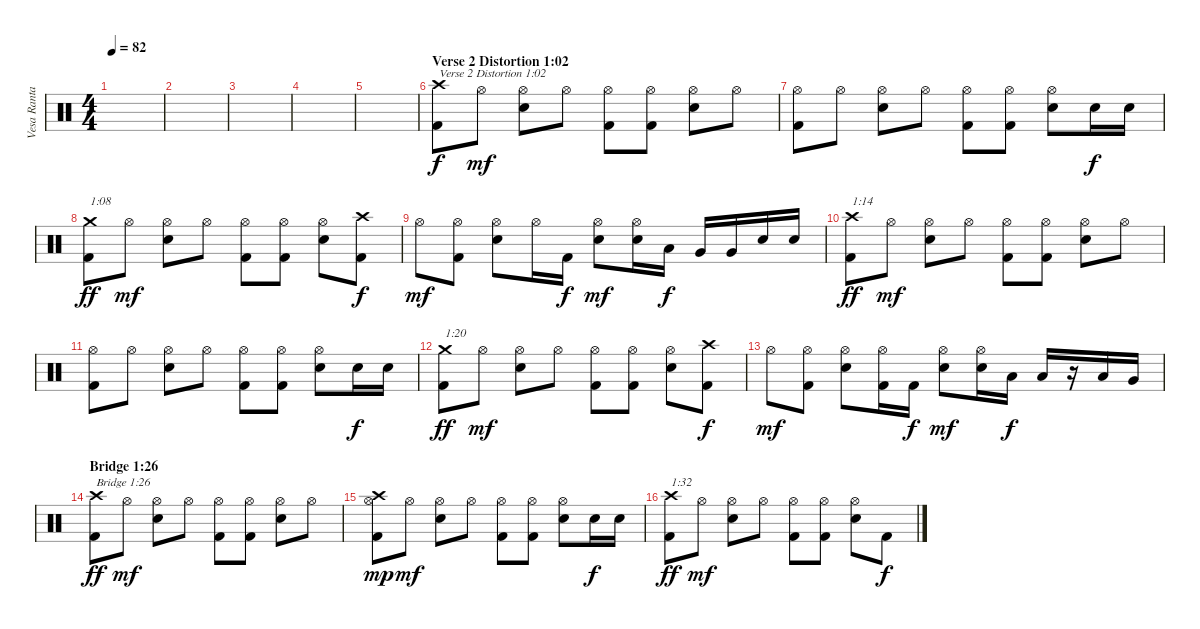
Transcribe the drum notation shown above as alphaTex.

\track ("Vesa Ranta (Drums)" "Vesa Ranta") {instrument percussion}
\staff {score}
\articulation defaults
\ts (4 4)
\tempo 82
\clef neutral
\ks c
|
|
|
|
|
\section ("" "Verse 2 Distortion 1:02")
("Kick (hit) 2" "Crash high (hit)").8{txt "Verse 2 Distortion 1:02"} "Hi-Hat (open)".8{dy mf} ("Electric Snare (hit)" "Hi-Hat (open)").8 "Hi-Hat (open)".8 ("Kick (hit) 2" "Hi-Hat (open)").8 ("Kick (hit) 2" "Hi-Hat (open)").8 ("Electric Snare (hit)" "Hi-Hat (open)").8 "Hi-Hat (open)".8 |
("Kick (hit) 2" "Hi-Hat (open)").8 "Hi-Hat (open)".8 ("Electric Snare (hit)" "Hi-Hat (open)").8 "Hi-Hat (open)".8 ("Kick (hit) 2" "Hi-Hat (open)").8 ("Kick (hit) 2" "Hi-Hat (open)").8 ("Electric Snare (hit)" "Hi-Hat (open)").8 "Electric Snare (hit)".16{dy f} "Electric Snare (hit)".16 |
("Kick (hit) 2" "Crash medium (hit)").8{txt "1:08" dy ff} "Hi-Hat (open)".8{dy mf} ("Electric Snare (hit)" "Hi-Hat (open)").8 "Hi-Hat (open)".8 ("Kick (hit) 2" "Hi-Hat (open)").8 ("Kick (hit) 2" "Hi-Hat (open)").8 ("Electric Snare (hit)" "Hi-Hat (open)").8 ("Kick (hit) 2" "Crash high (hit)").8{dy f} |
"Hi-Hat (open)".8{dy mf} ("Kick (hit) 2" "Hi-Hat (open)").8 ("Electric Snare (hit)" "Hi-Hat (open)").8 "Hi-Hat (open)".16 "Kick (hit) 2".16{dy f} ("Electric Snare (hit)" "Hi-Hat (open)").8{dy mf} ("Electric Snare (hit)" "Hi-Hat (open)").16 "Low Tom (hit)".16{dy f} "Very Low Tom (hit)".16 "Very Low Tom (hit)".16 "Electric Snare (hit)".16 "Electric Snare (hit)".16 |
("Kick (hit) 2" "Crash high (hit)").8{txt "1:14" dy ff} "Hi-Hat (open)".8{dy mf} ("Electric Snare (hit)" "Hi-Hat (open)").8 "Hi-Hat (open)".8 ("Kick (hit) 2" "Hi-Hat (open)").8 ("Kick (hit) 2" "Hi-Hat (open)").8 ("Electric Snare (hit)" "Hi-Hat (open)").8 "Hi-Hat (open)".8 |
("Kick (hit) 2" "Hi-Hat (open)").8 "Hi-Hat (open)".8 ("Electric Snare (hit)" "Hi-Hat (open)").8 "Hi-Hat (open)".8 ("Kick (hit) 2" "Hi-Hat (open)").8 ("Kick (hit) 2" "Hi-Hat (open)").8 ("Electric Snare (hit)" "Hi-Hat (open)").8 "Electric Snare (hit)".16{dy f} "Electric Snare (hit)".16 |
("Kick (hit) 2" "Crash medium (hit)").8{txt "1:20" dy ff} "Hi-Hat (open)".8{dy mf} ("Electric Snare (hit)" "Hi-Hat (open)").8 "Hi-Hat (open)".8 ("Kick (hit) 2" "Hi-Hat (open)").8 ("Kick (hit) 2" "Hi-Hat (open)").8 ("Electric Snare (hit)" "Hi-Hat (open)").8 ("Kick (hit) 2" "Crash high (hit)").8{dy f} |
"Hi-Hat (open)".8{dy mf} ("Kick (hit) 2" "Hi-Hat (open)").8 ("Electric Snare (hit)" "Hi-Hat (open)").8 ("Kick (hit) 2" "Hi-Hat (open)").16 "Kick (hit) 2".16{dy f} ("Electric Snare (hit)" "Hi-Hat (open)").8{dy mf} ("Electric Snare (hit)" "Hi-Hat (open)").16 "Low Tom (hit)".16{dy f} "Low Tom (hit)".16 r.16 "Low Tom (hit)".16 "Very Low Tom (hit)".16 |
\section ("" "Bridge 1:26")
("Kick (hit) 2" "Crash high (hit)").8{txt "Bridge 1:26" dy ff} "Hi-Hat (open)".8{dy mf} ("Electric Snare (hit)" "Hi-Hat (open)").8 "Hi-Hat (open)".8 ("Kick (hit) 2" "Hi-Hat (open)").8 ("Kick (hit) 2" "Hi-Hat (open)").8 ("Electric Snare (hit)" "Hi-Hat (open)").8 "Hi-Hat (open)".8 |
("Kick (hit) 2" "Hi-Hat (open)" "Crash high (hit)").8{dy mp} "Hi-Hat (open)".8{dy mf} ("Electric Snare (hit)" "Hi-Hat (open)").8 "Hi-Hat (open)".8 ("Kick (hit) 2" "Hi-Hat (open)").8 ("Kick (hit) 2" "Hi-Hat (open)").8 ("Electric Snare (hit)" "Hi-Hat (open)").8 "Electric Snare (hit)".16{dy f} "Electric Snare (hit)".16 |
("Kick (hit) 2" "Crash high (hit)").8{txt "1:32" dy ff} "Hi-Hat (open)".8{dy mf} ("Electric Snare (hit)" "Hi-Hat (open)").8 "Hi-Hat (open)".8 ("Kick (hit) 2" "Hi-Hat (open)").8 ("Kick (hit) 2" "Hi-Hat (open)").8 ("Electric Snare (hit)" "Hi-Hat (open)").8 "Kick (hit) 2".8{dy f}
